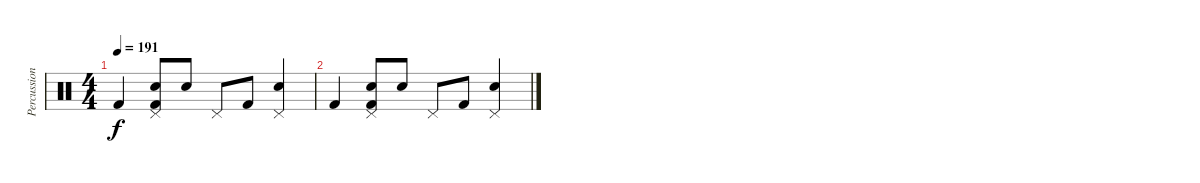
\track ("Percussion" "Percussion") {instrument percussion}
\staff {score}
\articulation defaults
\ts (4 4)
\tempo 191
\clef neutral
\ks c "Kick (hit) 2".4{dy f}
("Pedal Hi-Hat (hit)" "Snare (hit) 2" "Kick (hit) 2").8 "Snare (hit) 2".8 "Pedal Hi-Hat (hit)".8 "Kick (hit) 2".8 ("Pedal Hi-Hat (hit)" "Snare (hit) 2").4 |
"Kick (hit) 2".4 ("Pedal Hi-Hat (hit)" "Snare (hit) 2" "Kick (hit) 2").8 "Snare (hit) 2".8 "Pedal Hi-Hat (hit)".8 "Kick (hit) 2".8 ("Pedal Hi-Hat (hit)" "Snare (hit) 2").4
